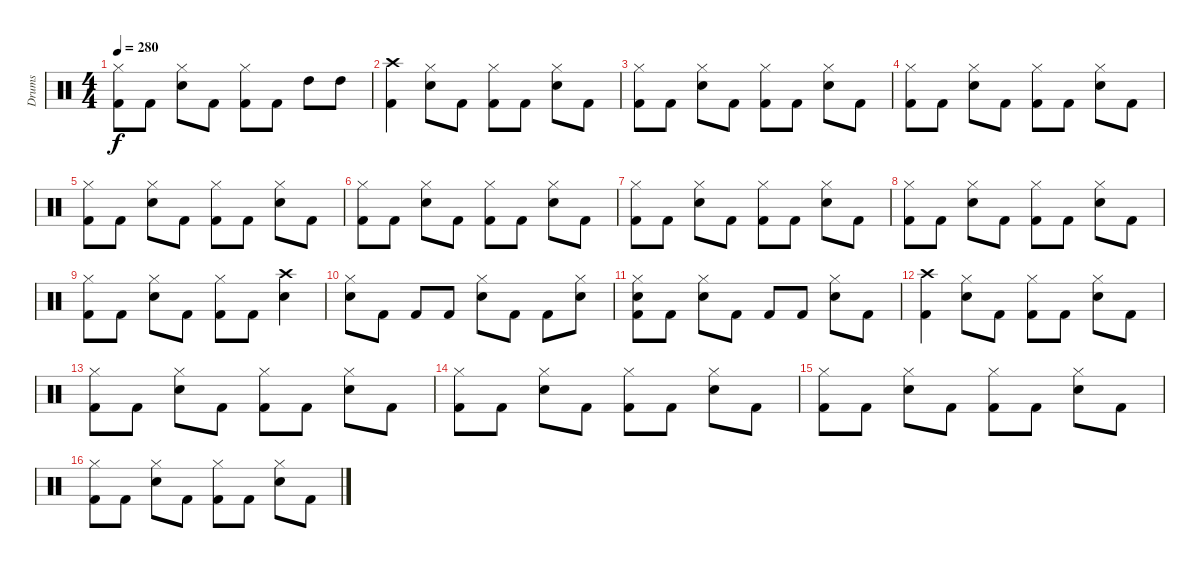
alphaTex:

\track ("Drums" "Drums") {instrument percussion}
\staff {score}
\articulation defaults
\ts (4 4)
\tempo 280
\clef neutral
\ks c
("Hi-Hat (closed)" "Kick (hit) 2").8{dy f} "Kick (hit) 2".8 ("Hi-Hat (closed)" "Snare (hit) 2").8 "Kick (hit) 2".8 ("Hi-Hat (closed)" "Kick (hit) 2").8 "Kick (hit) 2".8 "High Tom (hit)".8 "High Tom (hit)".8 |
("Kick (hit) 2" "Crash high (hit)").4 ("Hi-Hat (closed)" "Snare (hit) 2").8 "Kick (hit) 2".8 ("Hi-Hat (closed)" "Kick (hit) 2").8 "Kick (hit) 2".8 ("Hi-Hat (closed)" "Snare (hit) 2").8 "Kick (hit) 2".8 |
("Hi-Hat (closed)" "Kick (hit) 2").8 "Kick (hit) 2".8 ("Hi-Hat (closed)" "Snare (hit) 2").8 "Kick (hit) 2".8 ("Hi-Hat (closed)" "Kick (hit) 2").8 "Kick (hit) 2".8 ("Hi-Hat (closed)" "Snare (hit) 2").8 "Kick (hit) 2".8 |
("Hi-Hat (closed)" "Kick (hit) 2").8 "Kick (hit) 2".8 ("Hi-Hat (closed)" "Snare (hit) 2").8 "Kick (hit) 2".8 ("Hi-Hat (closed)" "Kick (hit) 2").8 "Kick (hit) 2".8 ("Hi-Hat (closed)" "Snare (hit) 2").8 "Kick (hit) 2".8 |
("Hi-Hat (closed)" "Kick (hit) 2").8 "Kick (hit) 2".8 ("Hi-Hat (closed)" "Snare (hit) 2").8 "Kick (hit) 2".8 ("Hi-Hat (closed)" "Kick (hit) 2").8 "Kick (hit) 2".8 ("Hi-Hat (closed)" "Snare (hit) 2").8 "Kick (hit) 2".8 |
("Hi-Hat (closed)" "Kick (hit) 2").8 "Kick (hit) 2".8 ("Hi-Hat (closed)" "Snare (hit) 2").8 "Kick (hit) 2".8 ("Hi-Hat (closed)" "Kick (hit) 2").8 "Kick (hit) 2".8 ("Hi-Hat (closed)" "Snare (hit) 2").8 "Kick (hit) 2".8 |
("Hi-Hat (closed)" "Kick (hit) 2").8 "Kick (hit) 2".8 ("Hi-Hat (closed)" "Snare (hit) 2").8 "Kick (hit) 2".8 ("Hi-Hat (closed)" "Kick (hit) 2").8 "Kick (hit) 2".8 ("Hi-Hat (closed)" "Snare (hit) 2").8 "Kick (hit) 2".8 |
("Hi-Hat (closed)" "Kick (hit) 2").8 "Kick (hit) 2".8 ("Hi-Hat (closed)" "Snare (hit) 2").8 "Kick (hit) 2".8 ("Hi-Hat (closed)" "Kick (hit) 2").8 "Kick (hit) 2".8 ("Hi-Hat (closed)" "Snare (hit) 2").8 "Kick (hit) 2".8 |
("Hi-Hat (closed)" "Kick (hit) 2").8 "Kick (hit) 2".8 ("Hi-Hat (closed)" "Snare (hit) 2").8 "Kick (hit) 2".8 ("Hi-Hat (closed)" "Kick (hit) 2").8 "Kick (hit) 2".8 ("Snare (hit) 2" "Crash high (hit)").4 |
("Snare (hit) 2" "Hi-Hat (closed)").8 "Kick (hit) 2".8 "Kick (hit) 2".8 "Kick (hit) 2".8 ("Snare (hit) 2" "Hi-Hat (closed)").8 "Kick (hit) 2".8 "Kick (hit) 2".8 ("Snare (hit) 2" "Hi-Hat (closed)").8 |
("Kick (hit) 2" "Snare (hit) 2" "Hi-Hat (closed)").8 "Kick (hit) 2".8 ("Snare (hit) 2" "Hi-Hat (closed)").8 "Kick (hit) 2".8 "Kick (hit) 2".8 "Kick (hit) 2".8 ("Snare (hit) 2" "Hi-Hat (closed)").8 "Kick (hit) 2".8 |
("Kick (hit) 2" "Crash high (hit)").4 ("Hi-Hat (closed)" "Snare (hit) 2").8 "Kick (hit) 2".8 ("Hi-Hat (closed)" "Kick (hit) 2").8 "Kick (hit) 2".8 ("Hi-Hat (closed)" "Snare (hit) 2").8 "Kick (hit) 2".8 |
("Hi-Hat (closed)" "Kick (hit) 2").8 "Kick (hit) 2".8 ("Hi-Hat (closed)" "Snare (hit) 2").8 "Kick (hit) 2".8 ("Hi-Hat (closed)" "Kick (hit) 2").8 "Kick (hit) 2".8 ("Hi-Hat (closed)" "Snare (hit) 2").8 "Kick (hit) 2".8 |
("Hi-Hat (closed)" "Kick (hit) 2").8 "Kick (hit) 2".8 ("Hi-Hat (closed)" "Snare (hit) 2").8 "Kick (hit) 2".8 ("Hi-Hat (closed)" "Kick (hit) 2").8 "Kick (hit) 2".8 ("Hi-Hat (closed)" "Snare (hit) 2").8 "Kick (hit) 2".8 |
("Hi-Hat (closed)" "Kick (hit) 2").8 "Kick (hit) 2".8 ("Hi-Hat (closed)" "Snare (hit) 2").8 "Kick (hit) 2".8 ("Hi-Hat (closed)" "Kick (hit) 2").8 "Kick (hit) 2".8 ("Hi-Hat (closed)" "Snare (hit) 2").8 "Kick (hit) 2".8 |
("Hi-Hat (closed)" "Kick (hit) 2").8 "Kick (hit) 2".8 ("Hi-Hat (closed)" "Snare (hit) 2").8 "Kick (hit) 2".8 ("Hi-Hat (closed)" "Kick (hit) 2").8 "Kick (hit) 2".8 ("Hi-Hat (closed)" "Snare (hit) 2").8 "Kick (hit) 2".8
